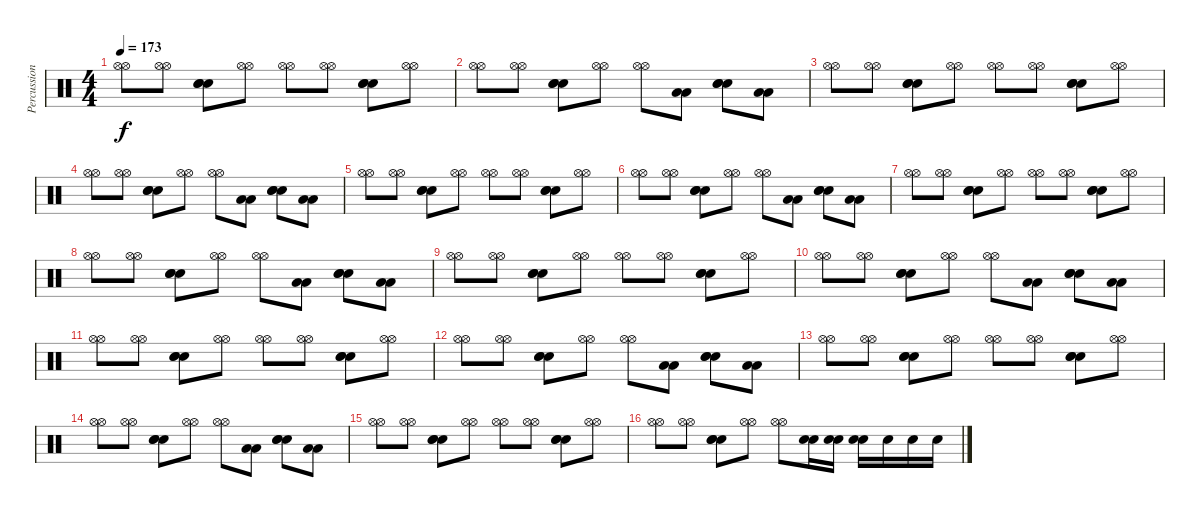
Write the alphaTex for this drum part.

\track ("Percussion" "Percussion") {instrument percussion}
\staff {score}
\articulation defaults
\ts (4 4)
\tempo 173
\clef neutral
\ks c
("Hi-Hat (open)" "Hi-Hat (open)").8{dy f} ("Hi-Hat (open)" "Hi-Hat (open)").8 ("Electric Snare (hit)" "Electric Snare (hit)" "Electric Snare (hit)").8 ("Hi-Hat (open)" "Hi-Hat (open)").8 ("Hi-Hat (open)" "Hi-Hat (open)").8 ("Hi-Hat (open)" "Hi-Hat (open)").8 ("Electric Snare (hit)" "Electric Snare (hit)" "Electric Snare (hit)").8 ("Hi-Hat (open)" "Hi-Hat (open)").8 |
("Hi-Hat (open)" "Hi-Hat (open)").8 ("Hi-Hat (open)" "Hi-Hat (open)").8 ("Electric Snare (hit)" "Electric Snare (hit)" "Electric Snare (hit)").8 ("Hi-Hat (open)" "Hi-Hat (open)").8 ("Hi-Hat (open)" "Hi-Hat (open)").8 ("Low Tom (hit)" "Low Tom (hit)").8 ("Electric Snare (hit)" "Electric Snare (hit)" "Electric Snare (hit)").8 ("Low Tom (hit)" "Low Tom (hit)").8 |
("Hi-Hat (open)" "Hi-Hat (open)").8 ("Hi-Hat (open)" "Hi-Hat (open)").8 ("Electric Snare (hit)" "Electric Snare (hit)" "Electric Snare (hit)").8 ("Hi-Hat (open)" "Hi-Hat (open)").8 ("Hi-Hat (open)" "Hi-Hat (open)").8 ("Hi-Hat (open)" "Hi-Hat (open)").8 ("Electric Snare (hit)" "Electric Snare (hit)" "Electric Snare (hit)").8 ("Hi-Hat (open)" "Hi-Hat (open)").8 |
("Hi-Hat (open)" "Hi-Hat (open)").8 ("Hi-Hat (open)" "Hi-Hat (open)").8 ("Electric Snare (hit)" "Electric Snare (hit)" "Electric Snare (hit)").8 ("Hi-Hat (open)" "Hi-Hat (open)").8 ("Hi-Hat (open)" "Hi-Hat (open)").8 ("Low Tom (hit)" "Low Tom (hit)").8 ("Electric Snare (hit)" "Electric Snare (hit)" "Electric Snare (hit)").8 ("Low Tom (hit)" "Low Tom (hit)").8 |
("Hi-Hat (open)" "Hi-Hat (open)").8 ("Hi-Hat (open)" "Hi-Hat (open)").8 ("Electric Snare (hit)" "Electric Snare (hit)" "Electric Snare (hit)").8 ("Hi-Hat (open)" "Hi-Hat (open)").8 ("Hi-Hat (open)" "Hi-Hat (open)").8 ("Hi-Hat (open)" "Hi-Hat (open)").8 ("Electric Snare (hit)" "Electric Snare (hit)" "Electric Snare (hit)").8 ("Hi-Hat (open)" "Hi-Hat (open)").8 |
("Hi-Hat (open)" "Hi-Hat (open)").8 ("Hi-Hat (open)" "Hi-Hat (open)").8 ("Electric Snare (hit)" "Electric Snare (hit)" "Electric Snare (hit)").8 ("Hi-Hat (open)" "Hi-Hat (open)").8 ("Hi-Hat (open)" "Hi-Hat (open)").8 ("Low Tom (hit)" "Low Tom (hit)").8 ("Electric Snare (hit)" "Electric Snare (hit)" "Electric Snare (hit)").8 ("Low Tom (hit)" "Low Tom (hit)").8 |
("Hi-Hat (open)" "Hi-Hat (open)").8 ("Hi-Hat (open)" "Hi-Hat (open)").8 ("Electric Snare (hit)" "Electric Snare (hit)" "Electric Snare (hit)").8 ("Hi-Hat (open)" "Hi-Hat (open)").8 ("Hi-Hat (open)" "Hi-Hat (open)").8 ("Hi-Hat (open)" "Hi-Hat (open)").8 ("Electric Snare (hit)" "Electric Snare (hit)" "Electric Snare (hit)").8 ("Hi-Hat (open)" "Hi-Hat (open)").8 |
("Hi-Hat (open)" "Hi-Hat (open)").8 ("Hi-Hat (open)" "Hi-Hat (open)").8 ("Electric Snare (hit)" "Electric Snare (hit)" "Electric Snare (hit)").8 ("Hi-Hat (open)" "Hi-Hat (open)").8 ("Hi-Hat (open)" "Hi-Hat (open)").8 ("Low Tom (hit)" "Low Tom (hit)").8 ("Electric Snare (hit)" "Electric Snare (hit)" "Electric Snare (hit)").8 ("Low Tom (hit)" "Low Tom (hit)").8 |
("Hi-Hat (open)" "Hi-Hat (open)").8 ("Hi-Hat (open)" "Hi-Hat (open)").8 ("Electric Snare (hit)" "Electric Snare (hit)" "Electric Snare (hit)").8 ("Hi-Hat (open)" "Hi-Hat (open)").8 ("Hi-Hat (open)" "Hi-Hat (open)").8 ("Hi-Hat (open)" "Hi-Hat (open)").8 ("Electric Snare (hit)" "Electric Snare (hit)" "Electric Snare (hit)").8 ("Hi-Hat (open)" "Hi-Hat (open)").8 |
("Hi-Hat (open)" "Hi-Hat (open)").8 ("Hi-Hat (open)" "Hi-Hat (open)").8 ("Electric Snare (hit)" "Electric Snare (hit)" "Electric Snare (hit)").8 ("Hi-Hat (open)" "Hi-Hat (open)").8 ("Hi-Hat (open)" "Hi-Hat (open)").8 ("Low Tom (hit)" "Low Tom (hit)").8 ("Electric Snare (hit)" "Electric Snare (hit)" "Electric Snare (hit)").8 ("Low Tom (hit)" "Low Tom (hit)").8 |
("Hi-Hat (open)" "Hi-Hat (open)").8 ("Hi-Hat (open)" "Hi-Hat (open)").8 ("Electric Snare (hit)" "Electric Snare (hit)" "Electric Snare (hit)").8 ("Hi-Hat (open)" "Hi-Hat (open)").8 ("Hi-Hat (open)" "Hi-Hat (open)").8 ("Hi-Hat (open)" "Hi-Hat (open)").8 ("Electric Snare (hit)" "Electric Snare (hit)" "Electric Snare (hit)").8 ("Hi-Hat (open)" "Hi-Hat (open)").8 |
("Hi-Hat (open)" "Hi-Hat (open)").8 ("Hi-Hat (open)" "Hi-Hat (open)").8 ("Electric Snare (hit)" "Electric Snare (hit)" "Electric Snare (hit)").8 ("Hi-Hat (open)" "Hi-Hat (open)").8 ("Hi-Hat (open)" "Hi-Hat (open)").8 ("Low Tom (hit)" "Low Tom (hit)").8 ("Electric Snare (hit)" "Electric Snare (hit)" "Electric Snare (hit)").8 ("Low Tom (hit)" "Low Tom (hit)").8 |
("Hi-Hat (open)" "Hi-Hat (open)").8 ("Hi-Hat (open)" "Hi-Hat (open)").8 ("Electric Snare (hit)" "Electric Snare (hit)" "Electric Snare (hit)").8 ("Hi-Hat (open)" "Hi-Hat (open)").8 ("Hi-Hat (open)" "Hi-Hat (open)").8 ("Hi-Hat (open)" "Hi-Hat (open)").8 ("Electric Snare (hit)" "Electric Snare (hit)" "Electric Snare (hit)").8 ("Hi-Hat (open)" "Hi-Hat (open)").8 |
("Hi-Hat (open)" "Hi-Hat (open)").8 ("Hi-Hat (open)" "Hi-Hat (open)").8 ("Electric Snare (hit)" "Electric Snare (hit)" "Electric Snare (hit)").8 ("Hi-Hat (open)" "Hi-Hat (open)").8 ("Hi-Hat (open)" "Hi-Hat (open)").8 ("Low Tom (hit)" "Low Tom (hit)").8 ("Electric Snare (hit)" "Electric Snare (hit)" "Electric Snare (hit)").8 ("Low Tom (hit)" "Low Tom (hit)").8 |
("Hi-Hat (open)" "Hi-Hat (open)").8 ("Hi-Hat (open)" "Hi-Hat (open)").8 ("Electric Snare (hit)" "Electric Snare (hit)" "Electric Snare (hit)").8 ("Hi-Hat (open)" "Hi-Hat (open)").8 ("Hi-Hat (open)" "Hi-Hat (open)").8 ("Hi-Hat (open)" "Hi-Hat (open)").8 ("Electric Snare (hit)" "Electric Snare (hit)" "Electric Snare (hit)").8 ("Hi-Hat (open)" "Hi-Hat (open)").8 |
("Hi-Hat (open)" "Hi-Hat (open)").8 ("Hi-Hat (open)" "Hi-Hat (open)").8 ("Electric Snare (hit)" "Electric Snare (hit)" "Electric Snare (hit)").8 ("Hi-Hat (open)" "Hi-Hat (open)").8 ("Hi-Hat (open)" "Hi-Hat (open)").8 ("Electric Snare (hit)" "Electric Snare (hit)").16 ("Electric Snare (hit)" "Electric Snare (hit)").16 ("Electric Snare (hit)" "Electric Snare (hit)").16 "Electric Snare (hit)".16 "Electric Snare (hit)".16 "Electric Snare (hit)".16
